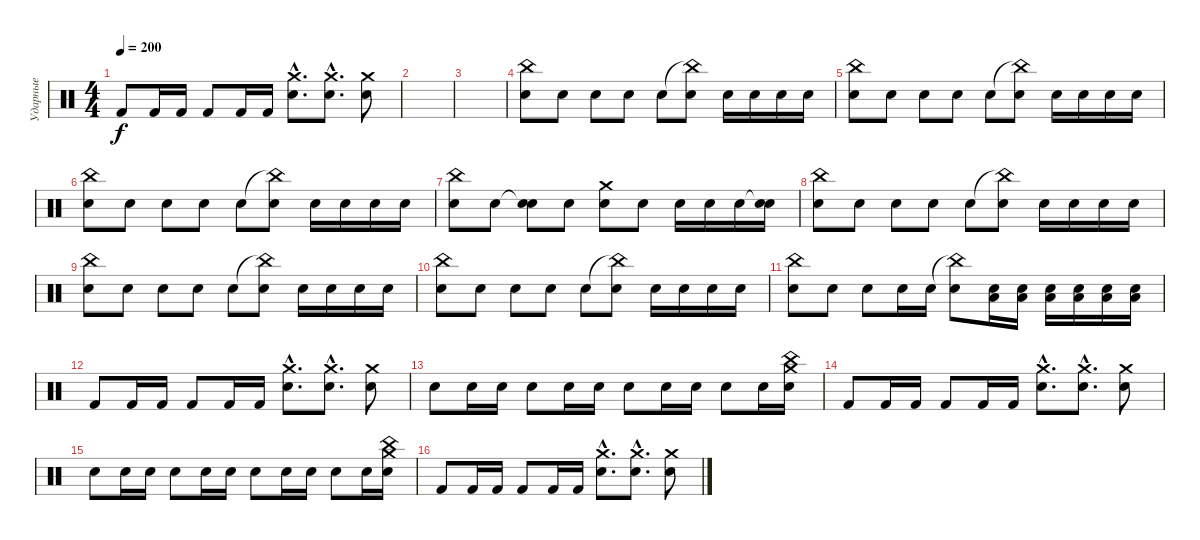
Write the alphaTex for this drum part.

\track ("Ударные" "Ударные") {instrument percussion}
\staff {score}
\articulation defaults
\ts (4 4)
\tempo 200
\clef neutral
\ks c "Kick (hit) 2".8{dy f} "Kick (hit) 2".16 "Kick (hit) 2".16 "Kick (hit) 2".8 "Kick (hit) 2".16 "Kick (hit) 2".16
("Snare (hit) 2"{hac} "Crash medium (hit)"{hac}).8{d} ("Snare (hit) 2"{hac} "Crash medium (hit)"{hac}).8{d} ("Snare (hit) 2" "Crash medium (hit)").8 |
|
|
("China (hit)" "Snare (hit) 2").8 "Snare (hit) 2".8 "Snare (hit) 2".8 "Snare (hit) 2".8 "Snare (hit) 2".8 ("China (hit)"{t} "Snare (hit) 2").8 "Snare (hit) 2".16 "Snare (hit) 2".16 "Snare (hit) 2".16 "Snare (hit) 2".16 |
("China (hit)" "Snare (hit) 2").8 "Snare (hit) 2".8 "Snare (hit) 2".8 "Snare (hit) 2".8 "Snare (hit) 2".8 ("China (hit)"{t} "Snare (hit) 2").8 "Snare (hit) 2".16 "Snare (hit) 2".16 "Snare (hit) 2".16 "Snare (hit) 2".16 |
("China (hit)" "Snare (hit) 2").8 "Snare (hit) 2".8 "Snare (hit) 2".8 "Snare (hit) 2".8 "Snare (hit) 2".8 ("China (hit)"{t} "Snare (hit) 2").8 "Snare (hit) 2".16 "Snare (hit) 2".16 "Snare (hit) 2".16 "Snare (hit) 2".16 |
("China (hit)" "Snare (hit) 2").8 "Snare (hit) 2".8 ("Snare (hit)"{t} "Snare (hit) 2").8 "Snare (hit) 2".8 ("Crash medium (hit)" "Snare (hit) 2").8 "Snare (hit) 2".8 "Snare (hit) 2".16 "Snare (hit) 2".16 "Snare (hit) 2".16 ("Snare (hit)"{t} "Snare (hit) 2").16 |
("China (hit)" "Snare (hit) 2").8 "Snare (hit) 2".8 "Snare (hit) 2".8 "Snare (hit) 2".8 "Snare (hit) 2".8 ("China (hit)"{t} "Snare (hit) 2").8 "Snare (hit) 2".16 "Snare (hit) 2".16 "Snare (hit) 2".16 "Snare (hit) 2".16 |
("China (hit)" "Snare (hit) 2").8 "Snare (hit) 2".8 "Snare (hit) 2".8 "Snare (hit) 2".8 "Snare (hit) 2".8 ("China (hit)"{t} "Snare (hit) 2").8 "Snare (hit) 2".16 "Snare (hit) 2".16 "Snare (hit) 2".16 "Snare (hit) 2".16 |
("China (hit)" "Snare (hit) 2").8 "Snare (hit) 2".8 "Snare (hit) 2".8 "Snare (hit) 2".8 "Snare (hit) 2".8 ("China (hit)"{t} "Snare (hit) 2").8 "Snare (hit) 2".16 "Snare (hit) 2".16 "Snare (hit) 2".16 "Snare (hit) 2".16 |
("China (hit)" "Snare (hit) 2").8 "Snare (hit) 2".8 "Snare (hit) 2".8 "Snare (hit) 2".16 "Snare (hit) 2".16 ("China (hit)"{t} "Snare (hit) 2").8 ("Low Floor Tom (hit)" "Electric Snare (hit)").16 ("Low Floor Tom (hit)" "Electric Snare (hit)").16 ("Low Floor Tom (hit)" "Electric Snare (hit)").16 ("Low Floor Tom (hit)" "Electric Snare (hit)").16 ("Low Floor Tom (hit)" "Electric Snare (hit)").16 ("Low Floor Tom (hit)" "Electric Snare (hit)").16 |
"Kick (hit) 2".8 "Kick (hit) 2".16 "Kick (hit) 2".16 "Kick (hit) 2".8 "Kick (hit) 2".16 "Kick (hit) 2".16 ("Snare (hit) 2"{hac} "Crash medium (hit)"{hac}).8{d} ("Snare (hit) 2"{hac} "Crash medium (hit)"{hac}).8{d} ("Snare (hit) 2" "Crash medium (hit)").8 |
"Snare (hit) 2".8 "Snare (hit) 2".16 "Snare (hit) 2".16 "Snare (hit) 2".8 "Snare (hit) 2".16 "Snare (hit) 2".16 "Snare (hit) 2".8 "Snare (hit) 2".16 "Snare (hit) 2".16 "Snare (hit) 2".8 "Snare (hit) 2".16 ("Snare (hit) 2" "Crash medium (hit)" "China (hit)").16 |
"Kick (hit) 2".8 "Kick (hit) 2".16 "Kick (hit) 2".16 "Kick (hit) 2".8 "Kick (hit) 2".16 "Kick (hit) 2".16 ("Snare (hit) 2"{hac} "Crash medium (hit)"{hac}).8{d} ("Snare (hit) 2"{hac} "Crash medium (hit)"{hac}).8{d} ("Snare (hit) 2" "Crash medium (hit)").8 |
"Snare (hit) 2".8 "Snare (hit) 2".16 "Snare (hit) 2".16 "Snare (hit) 2".8 "Snare (hit) 2".16 "Snare (hit) 2".16 "Snare (hit) 2".8 "Snare (hit) 2".16 "Snare (hit) 2".16 "Snare (hit) 2".8 "Snare (hit) 2".16 ("Snare (hit) 2" "Crash medium (hit)" "China (hit)").16 |
"Kick (hit) 2".8 "Kick (hit) 2".16 "Kick (hit) 2".16 "Kick (hit) 2".8 "Kick (hit) 2".16 "Kick (hit) 2".16 ("Snare (hit) 2"{hac} "Crash medium (hit)"{hac}).8{d} ("Snare (hit) 2"{hac} "Crash medium (hit)"{hac}).8{d} ("Snare (hit) 2" "Crash medium (hit)").8
